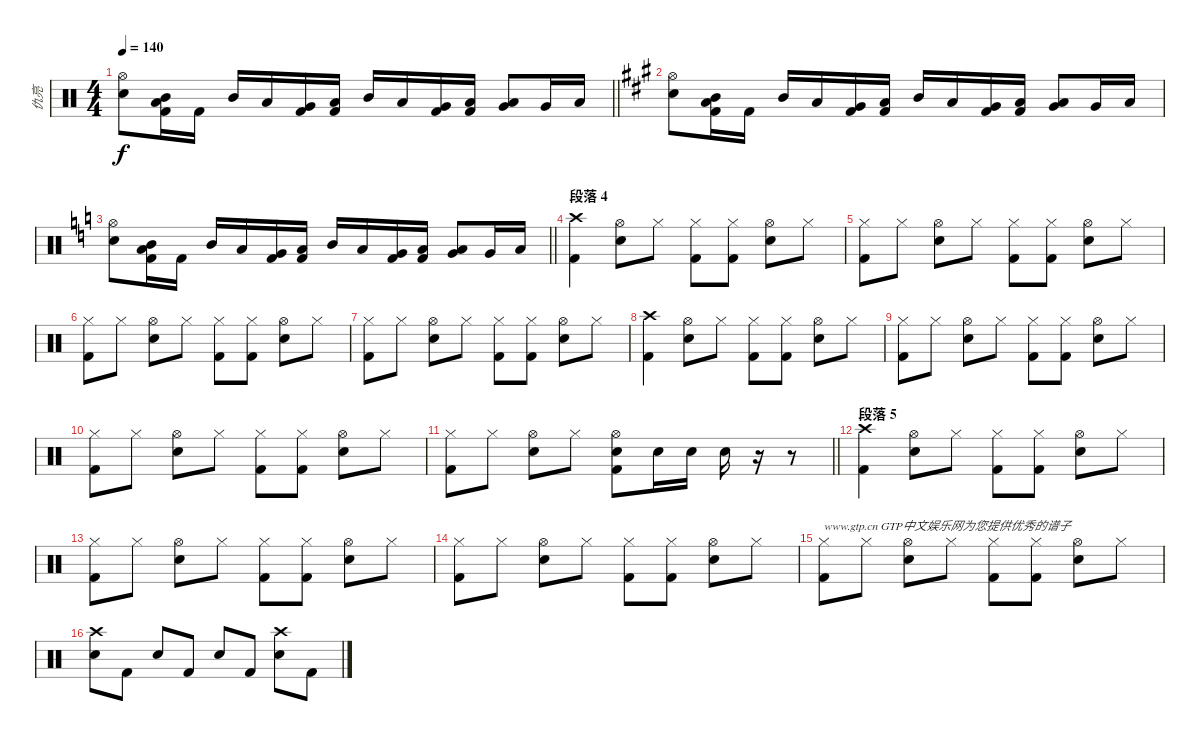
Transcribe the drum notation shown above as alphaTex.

\track ("仇亮" "仇亮") {instrument percussion}
\staff {score}
\articulation defaults
\ts (4 4)
\tempo 140
\clef neutral
\barLineRight lightlight
\ks c
("Hi-Hat (open)" "Electric Snare (hit)").8{dy f} ("Mid Tom (hit)" "Low Tom (hit)" "Kick (hit) 2").16 "Kick (hit) 2".16 "Mid Tom (hit)".16 "Low Tom (hit)".16 ("Very Low Tom (hit)" "Kick (hit) 2").16 ("Low Floor Tom (hit)" "Kick (hit) 2").16 "Mid Tom (hit)".16 "Low Tom (hit)".16 ("Very Low Tom (hit)" "Kick (hit) 2").16 ("Low Floor Tom (hit)" "Kick (hit) 2").16 ("Low Tom (hit)" "Very Low Tom (hit)").8 "Very Low Tom (hit)".16 "Low Floor Tom (hit)".16 |
\ks a
("Hi-Hat (open)" "Electric Snare (hit)").8 ("Mid Tom (hit)" "Low Tom (hit)" "Kick (hit) 2").16 "Kick (hit) 2".16 "Mid Tom (hit)".16 "Low Tom (hit)".16 ("Very Low Tom (hit)" "Kick (hit) 2").16 ("Low Floor Tom (hit)" "Kick (hit) 2").16 "Mid Tom (hit)".16 "Low Tom (hit)".16 ("Very Low Tom (hit)" "Kick (hit) 2").16 ("Low Floor Tom (hit)" "Kick (hit) 2").16 ("Low Tom (hit)" "Very Low Tom (hit)").8 "Very Low Tom (hit)".16 "Low Floor Tom (hit)".16 |
\barLineRight lightlight
\ks c
("Hi-Hat (open)" "Electric Snare (hit)").8 ("Mid Tom (hit)" "Low Tom (hit)" "Kick (hit) 2").16 "Kick (hit) 2".16 "Mid Tom (hit)".16 "Low Tom (hit)".16 ("Very Low Tom (hit)" "Kick (hit) 2").16 ("Low Floor Tom (hit)" "Kick (hit) 2").16 "Mid Tom (hit)".16 "Low Tom (hit)".16 ("Very Low Tom (hit)" "Kick (hit) 2").16 ("Low Floor Tom (hit)" "Kick (hit) 2").16 ("Low Tom (hit)" "Very Low Tom (hit)").8 "Very Low Tom (hit)".16 "Low Floor Tom (hit)".16 |
\section ("" "段落 4")
("Crash high (hit)" "Kick (hit) 2").4 ("Hi-Hat (open)" "Electric Snare (hit)").8 "Hi-Hat (closed)".8 ("Hi-Hat (closed)" "Kick (hit) 2").8 ("Hi-Hat (closed)" "Kick (hit) 2").8 ("Hi-Hat (open)" "Electric Snare (hit)").8 "Hi-Hat (closed)".8 |
("Hi-Hat (closed)" "Kick (hit) 2").8 "Hi-Hat (closed)".8 ("Hi-Hat (open)" "Electric Snare (hit)").8 "Hi-Hat (closed)".8 ("Hi-Hat (closed)" "Kick (hit) 2").8 ("Hi-Hat (closed)" "Kick (hit) 2").8 ("Hi-Hat (open)" "Electric Snare (hit)").8 "Hi-Hat (closed)".8 |
("Hi-Hat (closed)" "Kick (hit) 2").8 "Hi-Hat (closed)".8 ("Hi-Hat (open)" "Electric Snare (hit)").8 "Hi-Hat (closed)".8 ("Hi-Hat (closed)" "Kick (hit) 2").8 ("Hi-Hat (closed)" "Kick (hit) 2").8 ("Hi-Hat (open)" "Electric Snare (hit)").8 "Hi-Hat (closed)".8 |
("Hi-Hat (closed)" "Kick (hit) 2").8 "Hi-Hat (closed)".8 ("Hi-Hat (open)" "Electric Snare (hit)").8 "Hi-Hat (closed)".8 ("Hi-Hat (closed)" "Kick (hit) 2").8 ("Hi-Hat (closed)" "Kick (hit) 2").8 ("Hi-Hat (open)" "Electric Snare (hit)").8 "Hi-Hat (closed)".8 |
("Crash high (hit)" "Kick (hit) 2").4 ("Hi-Hat (open)" "Electric Snare (hit)").8 "Hi-Hat (closed)".8 ("Hi-Hat (closed)" "Kick (hit) 2").8 ("Hi-Hat (closed)" "Kick (hit) 2").8 ("Hi-Hat (open)" "Electric Snare (hit)").8 "Hi-Hat (closed)".8 |
("Hi-Hat (closed)" "Kick (hit) 2").8 "Hi-Hat (closed)".8 ("Hi-Hat (open)" "Electric Snare (hit)").8 "Hi-Hat (closed)".8 ("Hi-Hat (closed)" "Kick (hit) 2").8 ("Hi-Hat (closed)" "Kick (hit) 2").8 ("Hi-Hat (open)" "Electric Snare (hit)").8 "Hi-Hat (closed)".8 |
("Hi-Hat (closed)" "Kick (hit) 2").8 "Hi-Hat (closed)".8 ("Hi-Hat (open)" "Electric Snare (hit)").8 "Hi-Hat (closed)".8 ("Hi-Hat (closed)" "Kick (hit) 2").8 ("Hi-Hat (closed)" "Kick (hit) 2").8 ("Hi-Hat (open)" "Electric Snare (hit)").8 "Hi-Hat (closed)".8 |
\barLineRight lightlight
("Hi-Hat (closed)" "Kick (hit) 2").8 "Hi-Hat (closed)".8 ("Hi-Hat (open)" "Electric Snare (hit)").8 "Hi-Hat (closed)".8 ("Hi-Hat (open)" "Electric Snare (hit)" "Kick (hit) 2").8 "Electric Snare (hit)".16 "Electric Snare (hit)".16 "Electric Snare (hit)".16 r.16 r.8 |
\section ("" "段落 5")
("Crash high (hit)" "Kick (hit) 2").4 ("Hi-Hat (open)" "Electric Snare (hit)").8 "Hi-Hat (closed)".8 ("Hi-Hat (closed)" "Kick (hit) 2").8 ("Hi-Hat (closed)" "Kick (hit) 2").8 ("Hi-Hat (open)" "Electric Snare (hit)").8 "Hi-Hat (closed)".8 |
("Hi-Hat (closed)" "Kick (hit) 2").8 "Hi-Hat (closed)".8 ("Hi-Hat (open)" "Electric Snare (hit)").8 "Hi-Hat (closed)".8 ("Hi-Hat (closed)" "Kick (hit) 2").8 ("Hi-Hat (closed)" "Kick (hit) 2").8 ("Hi-Hat (open)" "Electric Snare (hit)").8 "Hi-Hat (closed)".8 |
("Hi-Hat (closed)" "Kick (hit) 2").8 "Hi-Hat (closed)".8 ("Hi-Hat (open)" "Electric Snare (hit)").8 "Hi-Hat (closed)".8 ("Hi-Hat (closed)" "Kick (hit) 2").8 ("Hi-Hat (closed)" "Kick (hit) 2").8 ("Hi-Hat (open)" "Electric Snare (hit)").8 "Hi-Hat (closed)".8 |
("Hi-Hat (closed)" "Kick (hit) 2").8{txt "www.gtp.cn GTP中文娱乐网为您提供优秀的谱子"} "Hi-Hat (closed)".8 ("Hi-Hat (open)" "Electric Snare (hit)").8 "Hi-Hat (closed)".8 ("Hi-Hat (closed)" "Kick (hit) 2").8 ("Hi-Hat (closed)" "Kick (hit) 2").8 ("Hi-Hat (open)" "Electric Snare (hit)").8 "Hi-Hat (closed)".8 |
("Crash high (hit)" "Electric Snare (hit)").8 "Kick (hit) 2".8 "Electric Snare (hit)".8 "Kick (hit) 2".8 "Electric Snare (hit)".8 "Kick (hit) 2".8 ("Crash high (hit)" "Electric Snare (hit)").8 "Kick (hit) 2".8
